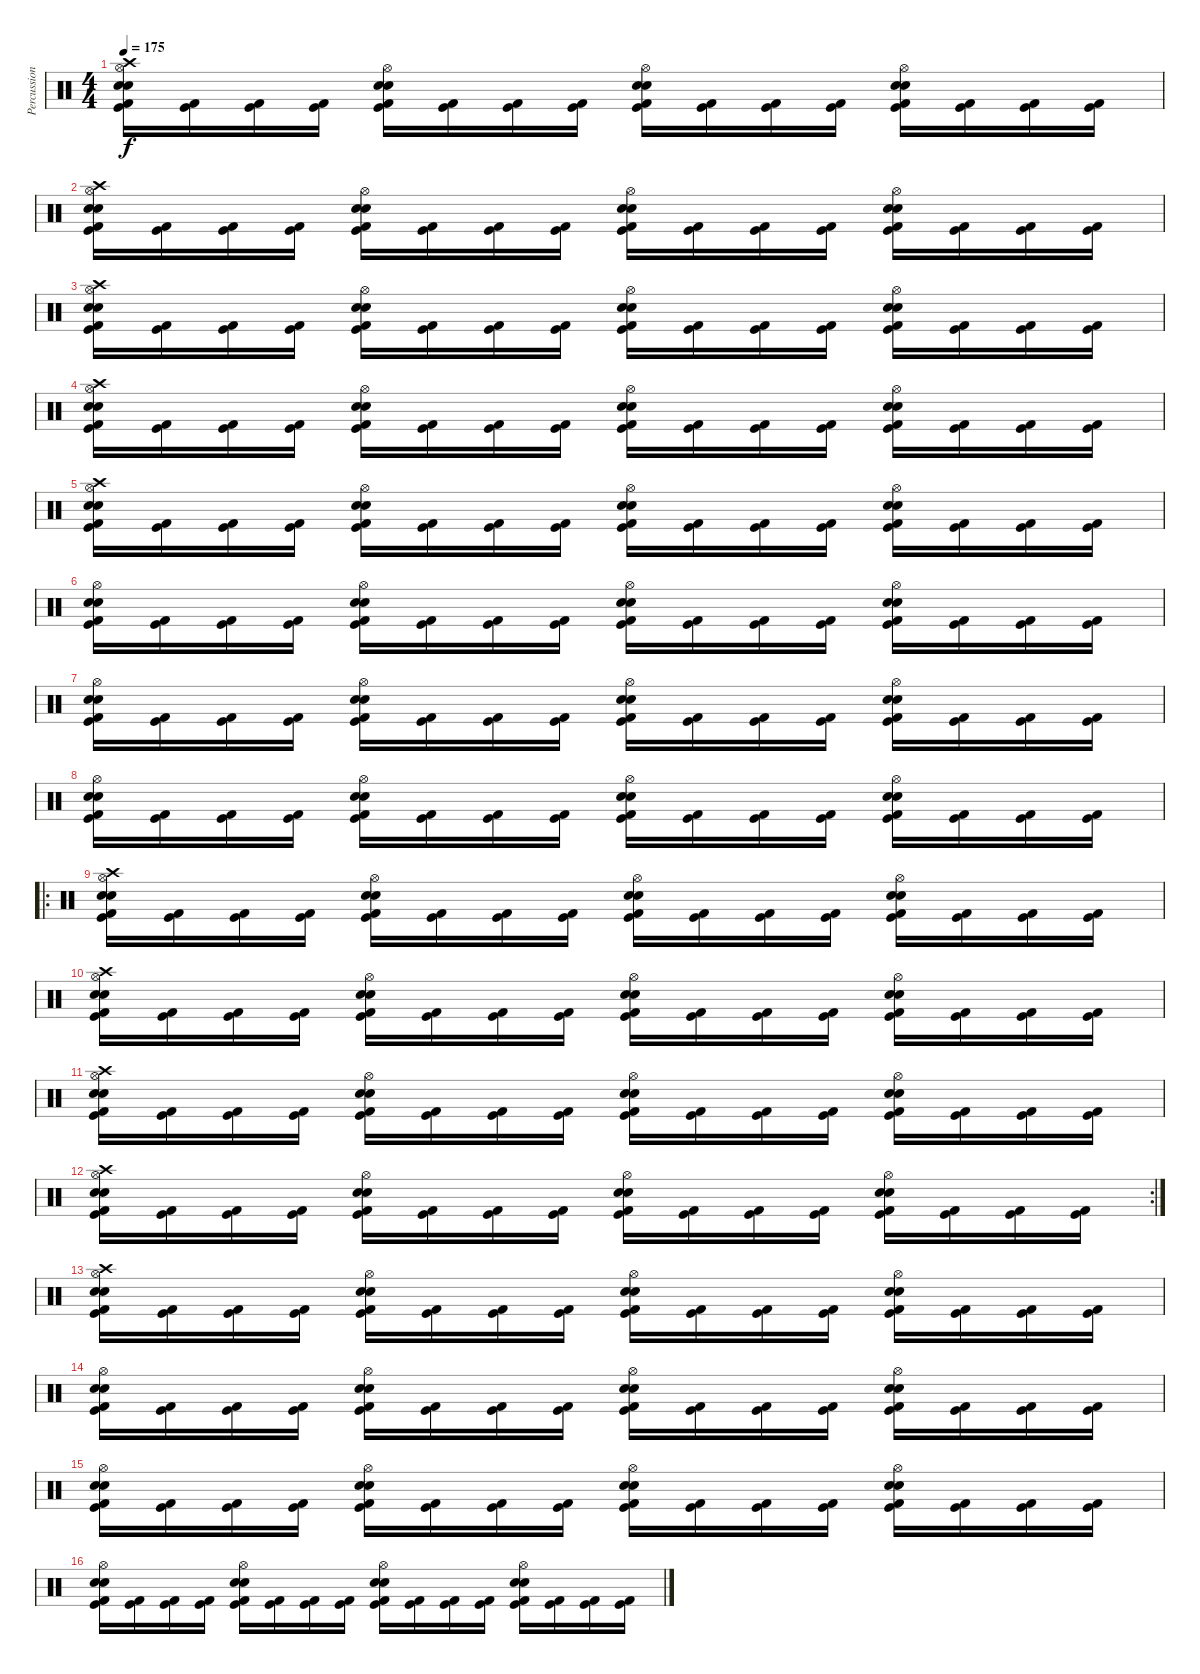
\track ("Percussion" "Percussion") {instrument percussion}
\staff {score}
\articulation defaults
\ts (4 4)
\tempo 175
\clef neutral
\ks c
("Crash high (hit)" "Hi-Hat (open)" "Electric Snare (hit)" "Snare (hit) 2" "Kick (hit) 2" "Kick (hit)").16{dy f} ("Kick (hit) 2" "Kick (hit)").16 ("Kick (hit) 2" "Kick (hit)").16 ("Kick (hit) 2" "Kick (hit)").16 ("Hi-Hat (open)" "Electric Snare (hit)" "Snare (hit) 2" "Kick (hit) 2" "Kick (hit)").16 ("Kick (hit) 2" "Kick (hit)").16 ("Kick (hit) 2" "Kick (hit)").16 ("Kick (hit) 2" "Kick (hit)").16 ("Hi-Hat (open)" "Electric Snare (hit)" "Snare (hit) 2" "Kick (hit) 2" "Kick (hit)").16 ("Kick (hit) 2" "Kick (hit)").16 ("Kick (hit) 2" "Kick (hit)").16 ("Kick (hit) 2" "Kick (hit)").16 ("Hi-Hat (open)" "Electric Snare (hit)" "Snare (hit) 2" "Kick (hit) 2" "Kick (hit)").16 ("Kick (hit) 2" "Kick (hit)").16 ("Kick (hit) 2" "Kick (hit)").16 ("Kick (hit) 2" "Kick (hit)").16 |
("Crash high (hit)" "Hi-Hat (open)" "Electric Snare (hit)" "Snare (hit) 2" "Kick (hit) 2" "Kick (hit)").16 ("Kick (hit) 2" "Kick (hit)").16 ("Kick (hit) 2" "Kick (hit)").16 ("Kick (hit) 2" "Kick (hit)").16 ("Hi-Hat (open)" "Electric Snare (hit)" "Snare (hit) 2" "Kick (hit) 2" "Kick (hit)").16 ("Kick (hit) 2" "Kick (hit)").16 ("Kick (hit) 2" "Kick (hit)").16 ("Kick (hit) 2" "Kick (hit)").16 ("Hi-Hat (open)" "Electric Snare (hit)" "Snare (hit) 2" "Kick (hit) 2" "Kick (hit)").16 ("Kick (hit) 2" "Kick (hit)").16 ("Kick (hit) 2" "Kick (hit)").16 ("Kick (hit) 2" "Kick (hit)").16 ("Hi-Hat (open)" "Electric Snare (hit)" "Snare (hit) 2" "Kick (hit) 2" "Kick (hit)").16 ("Kick (hit) 2" "Kick (hit)").16 ("Kick (hit) 2" "Kick (hit)").16 ("Kick (hit) 2" "Kick (hit)").16 |
("Crash high (hit)" "Hi-Hat (open)" "Electric Snare (hit)" "Snare (hit) 2" "Kick (hit) 2" "Kick (hit)").16 ("Kick (hit) 2" "Kick (hit)").16 ("Kick (hit) 2" "Kick (hit)").16 ("Kick (hit) 2" "Kick (hit)").16 ("Hi-Hat (open)" "Electric Snare (hit)" "Snare (hit) 2" "Kick (hit) 2" "Kick (hit)").16 ("Kick (hit) 2" "Kick (hit)").16 ("Kick (hit) 2" "Kick (hit)").16 ("Kick (hit) 2" "Kick (hit)").16 ("Hi-Hat (open)" "Electric Snare (hit)" "Snare (hit) 2" "Kick (hit) 2" "Kick (hit)").16 ("Kick (hit) 2" "Kick (hit)").16 ("Kick (hit) 2" "Kick (hit)").16 ("Kick (hit) 2" "Kick (hit)").16 ("Hi-Hat (open)" "Electric Snare (hit)" "Snare (hit) 2" "Kick (hit) 2" "Kick (hit)").16 ("Kick (hit) 2" "Kick (hit)").16 ("Kick (hit) 2" "Kick (hit)").16 ("Kick (hit) 2" "Kick (hit)").16 |
("Crash high (hit)" "Hi-Hat (open)" "Electric Snare (hit)" "Snare (hit) 2" "Kick (hit) 2" "Kick (hit)").16 ("Kick (hit) 2" "Kick (hit)").16 ("Kick (hit) 2" "Kick (hit)").16 ("Kick (hit) 2" "Kick (hit)").16 ("Hi-Hat (open)" "Electric Snare (hit)" "Snare (hit) 2" "Kick (hit) 2" "Kick (hit)").16 ("Kick (hit) 2" "Kick (hit)").16 ("Kick (hit) 2" "Kick (hit)").16 ("Kick (hit) 2" "Kick (hit)").16 ("Hi-Hat (open)" "Electric Snare (hit)" "Snare (hit) 2" "Kick (hit) 2" "Kick (hit)").16 ("Kick (hit) 2" "Kick (hit)").16 ("Kick (hit) 2" "Kick (hit)").16 ("Kick (hit) 2" "Kick (hit)").16 ("Hi-Hat (open)" "Electric Snare (hit)" "Snare (hit) 2" "Kick (hit) 2" "Kick (hit)").16 ("Kick (hit) 2" "Kick (hit)").16 ("Kick (hit) 2" "Kick (hit)").16 ("Kick (hit) 2" "Kick (hit)").16 |
("Crash high (hit)" "Hi-Hat (open)" "Electric Snare (hit)" "Snare (hit) 2" "Kick (hit) 2" "Kick (hit)").16 ("Kick (hit) 2" "Kick (hit)").16 ("Kick (hit) 2" "Kick (hit)").16 ("Kick (hit) 2" "Kick (hit)").16 ("Hi-Hat (open)" "Electric Snare (hit)" "Snare (hit) 2" "Kick (hit) 2" "Kick (hit)").16 ("Kick (hit) 2" "Kick (hit)").16 ("Kick (hit) 2" "Kick (hit)").16 ("Kick (hit) 2" "Kick (hit)").16 ("Hi-Hat (open)" "Electric Snare (hit)" "Snare (hit) 2" "Kick (hit) 2" "Kick (hit)").16 ("Kick (hit) 2" "Kick (hit)").16 ("Kick (hit) 2" "Kick (hit)").16 ("Kick (hit) 2" "Kick (hit)").16 ("Hi-Hat (open)" "Electric Snare (hit)" "Snare (hit) 2" "Kick (hit) 2" "Kick (hit)").16 ("Kick (hit) 2" "Kick (hit)").16 ("Kick (hit) 2" "Kick (hit)").16 ("Kick (hit) 2" "Kick (hit)").16 |
("Hi-Hat (open)" "Electric Snare (hit)" "Snare (hit) 2" "Kick (hit) 2" "Kick (hit)").16 ("Kick (hit) 2" "Kick (hit)").16 ("Kick (hit) 2" "Kick (hit)").16 ("Kick (hit) 2" "Kick (hit)").16 ("Hi-Hat (open)" "Electric Snare (hit)" "Snare (hit) 2" "Kick (hit) 2" "Kick (hit)").16 ("Kick (hit) 2" "Kick (hit)").16 ("Kick (hit) 2" "Kick (hit)").16 ("Kick (hit) 2" "Kick (hit)").16 ("Hi-Hat (open)" "Electric Snare (hit)" "Snare (hit) 2" "Kick (hit) 2" "Kick (hit)").16 ("Kick (hit) 2" "Kick (hit)").16 ("Kick (hit) 2" "Kick (hit)").16 ("Kick (hit) 2" "Kick (hit)").16 ("Hi-Hat (open)" "Electric Snare (hit)" "Snare (hit) 2" "Kick (hit) 2" "Kick (hit)").16 ("Kick (hit) 2" "Kick (hit)").16 ("Kick (hit) 2" "Kick (hit)").16 ("Kick (hit) 2" "Kick (hit)").16 |
("Hi-Hat (open)" "Electric Snare (hit)" "Snare (hit) 2" "Kick (hit) 2" "Kick (hit)").16 ("Kick (hit) 2" "Kick (hit)").16 ("Kick (hit) 2" "Kick (hit)").16 ("Kick (hit) 2" "Kick (hit)").16 ("Hi-Hat (open)" "Electric Snare (hit)" "Snare (hit) 2" "Kick (hit) 2" "Kick (hit)").16 ("Kick (hit) 2" "Kick (hit)").16 ("Kick (hit) 2" "Kick (hit)").16 ("Kick (hit) 2" "Kick (hit)").16 ("Hi-Hat (open)" "Electric Snare (hit)" "Snare (hit) 2" "Kick (hit) 2" "Kick (hit)").16 ("Kick (hit) 2" "Kick (hit)").16 ("Kick (hit) 2" "Kick (hit)").16 ("Kick (hit) 2" "Kick (hit)").16 ("Hi-Hat (open)" "Electric Snare (hit)" "Snare (hit) 2" "Kick (hit) 2" "Kick (hit)").16 ("Kick (hit) 2" "Kick (hit)").16 ("Kick (hit) 2" "Kick (hit)").16 ("Kick (hit) 2" "Kick (hit)").16 |
("Hi-Hat (open)" "Electric Snare (hit)" "Snare (hit) 2" "Kick (hit) 2" "Kick (hit)").16 ("Kick (hit) 2" "Kick (hit)").16 ("Kick (hit) 2" "Kick (hit)").16 ("Kick (hit) 2" "Kick (hit)").16 ("Hi-Hat (open)" "Electric Snare (hit)" "Snare (hit) 2" "Kick (hit) 2" "Kick (hit)").16 ("Kick (hit) 2" "Kick (hit)").16 ("Kick (hit) 2" "Kick (hit)").16 ("Kick (hit) 2" "Kick (hit)").16 ("Hi-Hat (open)" "Electric Snare (hit)" "Snare (hit) 2" "Kick (hit) 2" "Kick (hit)").16 ("Kick (hit) 2" "Kick (hit)").16 ("Kick (hit) 2" "Kick (hit)").16 ("Kick (hit) 2" "Kick (hit)").16 ("Hi-Hat (open)" "Electric Snare (hit)" "Snare (hit) 2" "Kick (hit) 2" "Kick (hit)").16 ("Kick (hit) 2" "Kick (hit)").16 ("Kick (hit) 2" "Kick (hit)").16 ("Kick (hit) 2" "Kick (hit)").16 |
\ro
("Crash high (hit)" "Hi-Hat (open)" "Electric Snare (hit)" "Snare (hit) 2" "Kick (hit) 2" "Kick (hit)").16 ("Kick (hit) 2" "Kick (hit)").16 ("Kick (hit) 2" "Kick (hit)").16 ("Kick (hit) 2" "Kick (hit)").16 ("Hi-Hat (open)" "Electric Snare (hit)" "Snare (hit) 2" "Kick (hit) 2" "Kick (hit)").16 ("Kick (hit) 2" "Kick (hit)").16 ("Kick (hit) 2" "Kick (hit)").16 ("Kick (hit) 2" "Kick (hit)").16 ("Hi-Hat (open)" "Electric Snare (hit)" "Snare (hit) 2" "Kick (hit) 2" "Kick (hit)").16 ("Kick (hit) 2" "Kick (hit)").16 ("Kick (hit) 2" "Kick (hit)").16 ("Kick (hit) 2" "Kick (hit)").16 ("Hi-Hat (open)" "Electric Snare (hit)" "Snare (hit) 2" "Kick (hit) 2" "Kick (hit)").16 ("Kick (hit) 2" "Kick (hit)").16 ("Kick (hit) 2" "Kick (hit)").16 ("Kick (hit) 2" "Kick (hit)").16 |
("Crash high (hit)" "Hi-Hat (open)" "Electric Snare (hit)" "Snare (hit) 2" "Kick (hit) 2" "Kick (hit)").16 ("Kick (hit) 2" "Kick (hit)").16 ("Kick (hit) 2" "Kick (hit)").16 ("Kick (hit) 2" "Kick (hit)").16 ("Hi-Hat (open)" "Electric Snare (hit)" "Snare (hit) 2" "Kick (hit) 2" "Kick (hit)").16 ("Kick (hit) 2" "Kick (hit)").16 ("Kick (hit) 2" "Kick (hit)").16 ("Kick (hit) 2" "Kick (hit)").16 ("Hi-Hat (open)" "Electric Snare (hit)" "Snare (hit) 2" "Kick (hit) 2" "Kick (hit)").16 ("Kick (hit) 2" "Kick (hit)").16 ("Kick (hit) 2" "Kick (hit)").16 ("Kick (hit) 2" "Kick (hit)").16 ("Hi-Hat (open)" "Electric Snare (hit)" "Snare (hit) 2" "Kick (hit) 2" "Kick (hit)").16 ("Kick (hit) 2" "Kick (hit)").16 ("Kick (hit) 2" "Kick (hit)").16 ("Kick (hit) 2" "Kick (hit)").16 |
("Crash high (hit)" "Hi-Hat (open)" "Electric Snare (hit)" "Snare (hit) 2" "Kick (hit) 2" "Kick (hit)").16 ("Kick (hit) 2" "Kick (hit)").16 ("Kick (hit) 2" "Kick (hit)").16 ("Kick (hit) 2" "Kick (hit)").16 ("Hi-Hat (open)" "Electric Snare (hit)" "Snare (hit) 2" "Kick (hit) 2" "Kick (hit)").16 ("Kick (hit) 2" "Kick (hit)").16 ("Kick (hit) 2" "Kick (hit)").16 ("Kick (hit) 2" "Kick (hit)").16 ("Hi-Hat (open)" "Electric Snare (hit)" "Snare (hit) 2" "Kick (hit) 2" "Kick (hit)").16 ("Kick (hit) 2" "Kick (hit)").16 ("Kick (hit) 2" "Kick (hit)").16 ("Kick (hit) 2" "Kick (hit)").16 ("Hi-Hat (open)" "Electric Snare (hit)" "Snare (hit) 2" "Kick (hit) 2" "Kick (hit)").16 ("Kick (hit) 2" "Kick (hit)").16 ("Kick (hit) 2" "Kick (hit)").16 ("Kick (hit) 2" "Kick (hit)").16 |
\rc 2
("Crash high (hit)" "Hi-Hat (open)" "Electric Snare (hit)" "Snare (hit) 2" "Kick (hit) 2" "Kick (hit)").16 ("Kick (hit) 2" "Kick (hit)").16 ("Kick (hit) 2" "Kick (hit)").16 ("Kick (hit) 2" "Kick (hit)").16 ("Hi-Hat (open)" "Electric Snare (hit)" "Snare (hit) 2" "Kick (hit) 2" "Kick (hit)").16 ("Kick (hit) 2" "Kick (hit)").16 ("Kick (hit) 2" "Kick (hit)").16 ("Kick (hit) 2" "Kick (hit)").16 ("Hi-Hat (open)" "Electric Snare (hit)" "Snare (hit) 2" "Kick (hit) 2" "Kick (hit)").16 ("Kick (hit) 2" "Kick (hit)").16 ("Kick (hit) 2" "Kick (hit)").16 ("Kick (hit) 2" "Kick (hit)").16 ("Hi-Hat (open)" "Electric Snare (hit)" "Snare (hit) 2" "Kick (hit) 2" "Kick (hit)").16 ("Kick (hit) 2" "Kick (hit)").16 ("Kick (hit) 2" "Kick (hit)").16 ("Kick (hit) 2" "Kick (hit)").16 |
("Crash high (hit)" "Hi-Hat (open)" "Electric Snare (hit)" "Snare (hit) 2" "Kick (hit) 2" "Kick (hit)").16 ("Kick (hit) 2" "Kick (hit)").16 ("Kick (hit) 2" "Kick (hit)").16 ("Kick (hit) 2" "Kick (hit)").16 ("Hi-Hat (open)" "Electric Snare (hit)" "Snare (hit) 2" "Kick (hit) 2" "Kick (hit)").16 ("Kick (hit) 2" "Kick (hit)").16 ("Kick (hit) 2" "Kick (hit)").16 ("Kick (hit) 2" "Kick (hit)").16 ("Hi-Hat (open)" "Electric Snare (hit)" "Snare (hit) 2" "Kick (hit) 2" "Kick (hit)").16 ("Kick (hit) 2" "Kick (hit)").16 ("Kick (hit) 2" "Kick (hit)").16 ("Kick (hit) 2" "Kick (hit)").16 ("Hi-Hat (open)" "Electric Snare (hit)" "Snare (hit) 2" "Kick (hit) 2" "Kick (hit)").16 ("Kick (hit) 2" "Kick (hit)").16 ("Kick (hit) 2" "Kick (hit)").16 ("Kick (hit) 2" "Kick (hit)").16 |
("Hi-Hat (open)" "Electric Snare (hit)" "Snare (hit) 2" "Kick (hit) 2" "Kick (hit)").16 ("Kick (hit) 2" "Kick (hit)").16 ("Kick (hit) 2" "Kick (hit)").16 ("Kick (hit) 2" "Kick (hit)").16 ("Hi-Hat (open)" "Electric Snare (hit)" "Snare (hit) 2" "Kick (hit) 2" "Kick (hit)").16 ("Kick (hit) 2" "Kick (hit)").16 ("Kick (hit) 2" "Kick (hit)").16 ("Kick (hit) 2" "Kick (hit)").16 ("Hi-Hat (open)" "Electric Snare (hit)" "Snare (hit) 2" "Kick (hit) 2" "Kick (hit)").16 ("Kick (hit) 2" "Kick (hit)").16 ("Kick (hit) 2" "Kick (hit)").16 ("Kick (hit) 2" "Kick (hit)").16 ("Hi-Hat (open)" "Electric Snare (hit)" "Snare (hit) 2" "Kick (hit) 2" "Kick (hit)").16 ("Kick (hit) 2" "Kick (hit)").16 ("Kick (hit) 2" "Kick (hit)").16 ("Kick (hit) 2" "Kick (hit)").16 |
("Hi-Hat (open)" "Electric Snare (hit)" "Snare (hit) 2" "Kick (hit) 2" "Kick (hit)").16 ("Kick (hit) 2" "Kick (hit)").16 ("Kick (hit) 2" "Kick (hit)").16 ("Kick (hit) 2" "Kick (hit)").16 ("Hi-Hat (open)" "Electric Snare (hit)" "Snare (hit) 2" "Kick (hit) 2" "Kick (hit)").16 ("Kick (hit) 2" "Kick (hit)").16 ("Kick (hit) 2" "Kick (hit)").16 ("Kick (hit) 2" "Kick (hit)").16 ("Hi-Hat (open)" "Electric Snare (hit)" "Snare (hit) 2" "Kick (hit) 2" "Kick (hit)").16 ("Kick (hit) 2" "Kick (hit)").16 ("Kick (hit) 2" "Kick (hit)").16 ("Kick (hit) 2" "Kick (hit)").16 ("Hi-Hat (open)" "Electric Snare (hit)" "Snare (hit) 2" "Kick (hit) 2" "Kick (hit)").16 ("Kick (hit) 2" "Kick (hit)").16 ("Kick (hit) 2" "Kick (hit)").16 ("Kick (hit) 2" "Kick (hit)").16 |
("Hi-Hat (open)" "Electric Snare (hit)" "Snare (hit) 2" "Kick (hit) 2" "Kick (hit)").16 ("Kick (hit) 2" "Kick (hit)").16 ("Kick (hit) 2" "Kick (hit)").16 ("Kick (hit) 2" "Kick (hit)").16 ("Hi-Hat (open)" "Electric Snare (hit)" "Snare (hit) 2" "Kick (hit) 2" "Kick (hit)").16 ("Kick (hit) 2" "Kick (hit)").16 ("Kick (hit) 2" "Kick (hit)").16 ("Kick (hit) 2" "Kick (hit)").16 ("Hi-Hat (open)" "Electric Snare (hit)" "Snare (hit) 2" "Kick (hit) 2" "Kick (hit)").16 ("Kick (hit) 2" "Kick (hit)").16 ("Kick (hit) 2" "Kick (hit)").16 ("Kick (hit) 2" "Kick (hit)").16 ("Hi-Hat (open)" "Electric Snare (hit)" "Snare (hit) 2" "Kick (hit) 2" "Kick (hit)").16 ("Kick (hit) 2" "Kick (hit)").16 ("Kick (hit) 2" "Kick (hit)").16 ("Kick (hit) 2" "Kick (hit)").16
